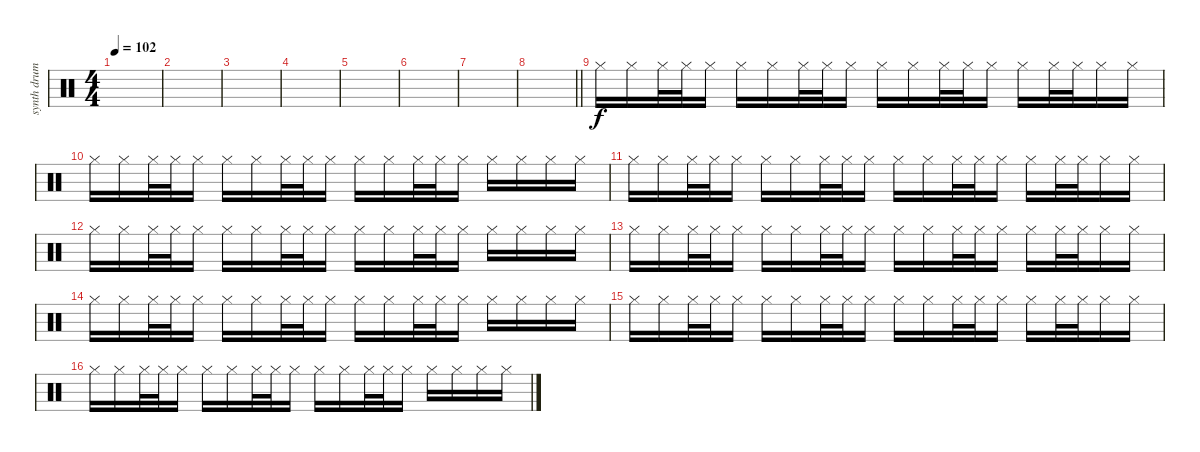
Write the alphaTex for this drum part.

\track ("synth drums" "synth drum") {instrument percussion}
\staff {score}
\articulation defaults
\ts (4 4)
\tempo 102
\clef neutral
\ks c
|
|
|
|
|
|
|
\barLineRight lightlight
|
"Hi-Hat (closed)".16 "Hi-Hat (closed)".16 "Hi-Hat (closed)".32 "Hi-Hat (closed)".32 "Hi-Hat (closed)".16 "Hi-Hat (closed)".16 "Hi-Hat (closed)".16 "Hi-Hat (closed)".32 "Hi-Hat (closed)".32 "Hi-Hat (closed)".16 "Hi-Hat (closed)".16 "Hi-Hat (closed)".16 "Hi-Hat (closed)".32 "Hi-Hat (closed)".32 "Hi-Hat (closed)".16 "Hi-Hat (closed)".16 "Hi-Hat (closed)".32 "Hi-Hat (closed)".32 "Hi-Hat (closed)".16 "Hi-Hat (closed)".16 |
"Hi-Hat (closed)".16 "Hi-Hat (closed)".16 "Hi-Hat (closed)".32 "Hi-Hat (closed)".32 "Hi-Hat (closed)".16 "Hi-Hat (closed)".16 "Hi-Hat (closed)".16 "Hi-Hat (closed)".32 "Hi-Hat (closed)".32 "Hi-Hat (closed)".16 "Hi-Hat (closed)".16 "Hi-Hat (closed)".16 "Hi-Hat (closed)".32 "Hi-Hat (closed)".32 "Hi-Hat (closed)".16 "Hi-Hat (closed)".16 "Hi-Hat (closed)".16 "Hi-Hat (closed)".16 "Hi-Hat (closed)".16 |
"Hi-Hat (closed)".16 "Hi-Hat (closed)".16 "Hi-Hat (closed)".32 "Hi-Hat (closed)".32 "Hi-Hat (closed)".16 "Hi-Hat (closed)".16 "Hi-Hat (closed)".16 "Hi-Hat (closed)".32 "Hi-Hat (closed)".32 "Hi-Hat (closed)".16 "Hi-Hat (closed)".16 "Hi-Hat (closed)".16 "Hi-Hat (closed)".32 "Hi-Hat (closed)".32 "Hi-Hat (closed)".16 "Hi-Hat (closed)".16 "Hi-Hat (closed)".32 "Hi-Hat (closed)".32 "Hi-Hat (closed)".16 "Hi-Hat (closed)".16 |
"Hi-Hat (closed)".16 "Hi-Hat (closed)".16 "Hi-Hat (closed)".32 "Hi-Hat (closed)".32 "Hi-Hat (closed)".16 "Hi-Hat (closed)".16 "Hi-Hat (closed)".16 "Hi-Hat (closed)".32 "Hi-Hat (closed)".32 "Hi-Hat (closed)".16 "Hi-Hat (closed)".16 "Hi-Hat (closed)".16 "Hi-Hat (closed)".32 "Hi-Hat (closed)".32 "Hi-Hat (closed)".16 "Hi-Hat (closed)".16 "Hi-Hat (closed)".16 "Hi-Hat (closed)".16 "Hi-Hat (closed)".16 |
"Hi-Hat (closed)".16 "Hi-Hat (closed)".16 "Hi-Hat (closed)".32 "Hi-Hat (closed)".32 "Hi-Hat (closed)".16 "Hi-Hat (closed)".16 "Hi-Hat (closed)".16 "Hi-Hat (closed)".32 "Hi-Hat (closed)".32 "Hi-Hat (closed)".16 "Hi-Hat (closed)".16 "Hi-Hat (closed)".16 "Hi-Hat (closed)".32 "Hi-Hat (closed)".32 "Hi-Hat (closed)".16 "Hi-Hat (closed)".16 "Hi-Hat (closed)".32 "Hi-Hat (closed)".32 "Hi-Hat (closed)".16 "Hi-Hat (closed)".16 |
"Hi-Hat (closed)".16 "Hi-Hat (closed)".16 "Hi-Hat (closed)".32 "Hi-Hat (closed)".32 "Hi-Hat (closed)".16 "Hi-Hat (closed)".16 "Hi-Hat (closed)".16 "Hi-Hat (closed)".32 "Hi-Hat (closed)".32 "Hi-Hat (closed)".16 "Hi-Hat (closed)".16 "Hi-Hat (closed)".16 "Hi-Hat (closed)".32 "Hi-Hat (closed)".32 "Hi-Hat (closed)".16 "Hi-Hat (closed)".16 "Hi-Hat (closed)".16 "Hi-Hat (closed)".16 "Hi-Hat (closed)".16 |
"Hi-Hat (closed)".16 "Hi-Hat (closed)".16 "Hi-Hat (closed)".32 "Hi-Hat (closed)".32 "Hi-Hat (closed)".16 "Hi-Hat (closed)".16 "Hi-Hat (closed)".16 "Hi-Hat (closed)".32 "Hi-Hat (closed)".32 "Hi-Hat (closed)".16 "Hi-Hat (closed)".16 "Hi-Hat (closed)".16 "Hi-Hat (closed)".32 "Hi-Hat (closed)".32 "Hi-Hat (closed)".16 "Hi-Hat (closed)".16 "Hi-Hat (closed)".32 "Hi-Hat (closed)".32 "Hi-Hat (closed)".16 "Hi-Hat (closed)".16 |
"Hi-Hat (closed)".16 "Hi-Hat (closed)".16 "Hi-Hat (closed)".32 "Hi-Hat (closed)".32 "Hi-Hat (closed)".16 "Hi-Hat (closed)".16 "Hi-Hat (closed)".16 "Hi-Hat (closed)".32 "Hi-Hat (closed)".32 "Hi-Hat (closed)".16 "Hi-Hat (closed)".16 "Hi-Hat (closed)".16 "Hi-Hat (closed)".32 "Hi-Hat (closed)".32 "Hi-Hat (closed)".16 "Hi-Hat (closed)".16 "Hi-Hat (closed)".16 "Hi-Hat (closed)".16 "Hi-Hat (closed)".16
